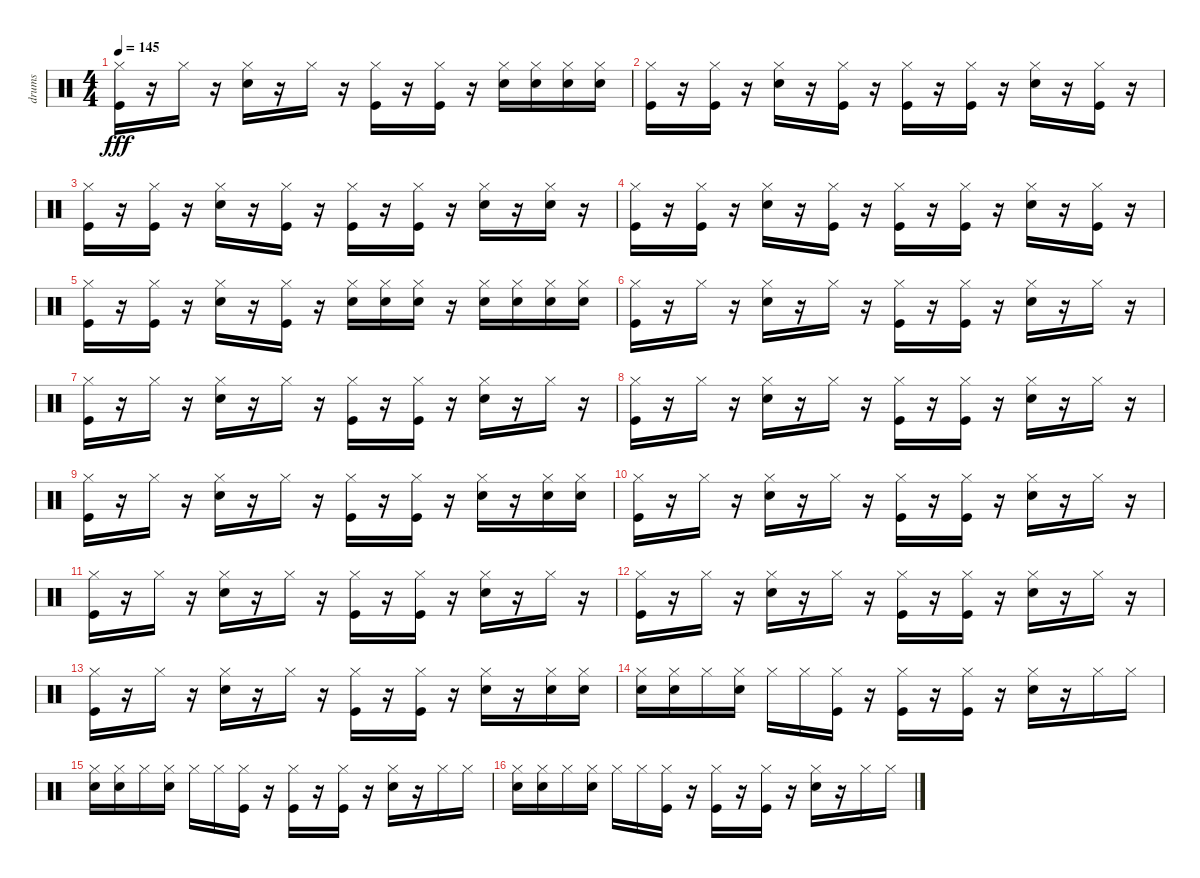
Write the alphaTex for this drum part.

\track ("drums" "drums") {instrument percussion}
\staff {score}
\articulation defaults
\ts (4 4)
\tempo 145
\clef neutral
\ks c
("Kick (hit)" "Hi-Hat (closed)").16{dy fff} r.16 "Hi-Hat (closed)".16 r.16 ("Snare (hit) 2" "Hi-Hat (closed)").16 r.16 "Hi-Hat (closed)".16 r.16 ("Kick (hit)" "Hi-Hat (closed)").16 r.16 ("Kick (hit)" "Hi-Hat (closed)").16 r.16 ("Snare (hit) 2" "Hi-Hat (closed)").16 ("Snare (hit) 2" "Hi-Hat (closed)").16 ("Snare (hit) 2" "Hi-Hat (closed)").16 ("Snare (hit) 2" "Hi-Hat (closed)").16 |
("Kick (hit)" "Hi-Hat (closed)").16 r.16 ("Kick (hit)" "Hi-Hat (closed)").16 r.16 ("Snare (hit) 2" "Hi-Hat (closed)").16 r.16 ("Kick (hit)" "Hi-Hat (closed)").16 r.16 ("Kick (hit)" "Hi-Hat (closed)").16 r.16 ("Kick (hit)" "Hi-Hat (closed)").16 r.16 ("Snare (hit) 2" "Hi-Hat (closed)").16 r.16 ("Kick (hit)" "Hi-Hat (closed)").16 r.16 |
("Kick (hit)" "Hi-Hat (closed)").16 r.16 ("Kick (hit)" "Hi-Hat (closed)").16 r.16 ("Snare (hit) 2" "Hi-Hat (closed)").16 r.16 ("Kick (hit)" "Hi-Hat (closed)").16 r.16 ("Kick (hit)" "Hi-Hat (closed)").16 r.16 ("Kick (hit)" "Hi-Hat (closed)").16 r.16 ("Snare (hit) 2" "Hi-Hat (closed)").16 r.16 ("Snare (hit) 2" "Hi-Hat (closed)").16 r.16 |
("Kick (hit)" "Hi-Hat (closed)").16 r.16 ("Kick (hit)" "Hi-Hat (closed)").16 r.16 ("Snare (hit) 2" "Hi-Hat (closed)").16 r.16 ("Kick (hit)" "Hi-Hat (closed)").16 r.16 ("Kick (hit)" "Hi-Hat (closed)").16 r.16 ("Kick (hit)" "Hi-Hat (closed)").16 r.16 ("Snare (hit) 2" "Hi-Hat (closed)").16 r.16 ("Kick (hit)" "Hi-Hat (closed)").16 r.16 |
("Kick (hit)" "Hi-Hat (closed)").16 r.16 ("Kick (hit)" "Hi-Hat (closed)").16 r.16 ("Snare (hit) 2" "Hi-Hat (closed)").16 r.16 ("Kick (hit)" "Hi-Hat (closed)").16 r.16 ("Snare (hit) 2" "Hi-Hat (closed)").16 ("Snare (hit) 2" "Hi-Hat (closed)").16 ("Snare (hit) 2" "Hi-Hat (closed)").16 r.16 ("Snare (hit) 2" "Hi-Hat (closed)").16 ("Snare (hit) 2" "Hi-Hat (closed)").16 ("Snare (hit) 2" "Hi-Hat (closed)").16 ("Snare (hit) 2" "Hi-Hat (closed)").16 |
("Kick (hit)" "Hi-Hat (closed)").16 r.16 "Hi-Hat (closed)".16 r.16 ("Snare (hit) 2" "Hi-Hat (closed)").16 r.16 "Hi-Hat (closed)".16 r.16 ("Kick (hit)" "Hi-Hat (closed)").16 r.16 ("Kick (hit)" "Hi-Hat (closed)").16 r.16 ("Snare (hit) 2" "Hi-Hat (closed)").16 r.16 "Hi-Hat (closed)".16 r.16 |
("Kick (hit)" "Hi-Hat (closed)").16 r.16 "Hi-Hat (closed)".16 r.16 ("Snare (hit) 2" "Hi-Hat (closed)").16 r.16 "Hi-Hat (closed)".16 r.16 ("Kick (hit)" "Hi-Hat (closed)").16 r.16 ("Kick (hit)" "Hi-Hat (closed)").16 r.16 ("Snare (hit) 2" "Hi-Hat (closed)").16 r.16 "Hi-Hat (closed)".16 r.16 |
("Kick (hit)" "Hi-Hat (closed)").16 r.16 "Hi-Hat (closed)".16 r.16 ("Snare (hit) 2" "Hi-Hat (closed)").16 r.16 "Hi-Hat (closed)".16 r.16 ("Kick (hit)" "Hi-Hat (closed)").16 r.16 ("Kick (hit)" "Hi-Hat (closed)").16 r.16 ("Snare (hit) 2" "Hi-Hat (closed)").16 r.16 "Hi-Hat (closed)".16 r.16 |
("Kick (hit)" "Hi-Hat (closed)").16 r.16 "Hi-Hat (closed)".16 r.16 ("Snare (hit) 2" "Hi-Hat (closed)").16 r.16 "Hi-Hat (closed)".16 r.16 ("Kick (hit)" "Hi-Hat (closed)").16 r.16 ("Kick (hit)" "Hi-Hat (closed)").16 r.16 ("Snare (hit) 2" "Hi-Hat (closed)").16 r.16 ("Snare (hit) 2" "Hi-Hat (closed)").16 ("Snare (hit) 2" "Hi-Hat (closed)").16 |
("Kick (hit)" "Hi-Hat (closed)").16 r.16 "Hi-Hat (closed)".16 r.16 ("Snare (hit) 2" "Hi-Hat (closed)").16 r.16 "Hi-Hat (closed)".16 r.16 ("Kick (hit)" "Hi-Hat (closed)").16 r.16 ("Kick (hit)" "Hi-Hat (closed)").16 r.16 ("Snare (hit) 2" "Hi-Hat (closed)").16 r.16 "Hi-Hat (closed)".16 r.16 |
("Kick (hit)" "Hi-Hat (closed)").16 r.16 "Hi-Hat (closed)".16 r.16 ("Snare (hit) 2" "Hi-Hat (closed)").16 r.16 "Hi-Hat (closed)".16 r.16 ("Kick (hit)" "Hi-Hat (closed)").16 r.16 ("Kick (hit)" "Hi-Hat (closed)").16 r.16 ("Snare (hit) 2" "Hi-Hat (closed)").16 r.16 "Hi-Hat (closed)".16 r.16 |
("Kick (hit)" "Hi-Hat (closed)").16 r.16 "Hi-Hat (closed)".16 r.16 ("Snare (hit) 2" "Hi-Hat (closed)").16 r.16 "Hi-Hat (closed)".16 r.16 ("Kick (hit)" "Hi-Hat (closed)").16 r.16 ("Kick (hit)" "Hi-Hat (closed)").16 r.16 ("Snare (hit) 2" "Hi-Hat (closed)").16 r.16 "Hi-Hat (closed)".16 r.16 |
("Kick (hit)" "Hi-Hat (closed)").16 r.16 "Hi-Hat (closed)".16 r.16 ("Snare (hit) 2" "Hi-Hat (closed)").16 r.16 "Hi-Hat (closed)".16 r.16 ("Kick (hit)" "Hi-Hat (closed)").16 r.16 ("Kick (hit)" "Hi-Hat (closed)").16 r.16 ("Snare (hit) 2" "Hi-Hat (closed)").16 r.16 ("Snare (hit) 2" "Hi-Hat (closed)").16 ("Snare (hit) 2" "Hi-Hat (closed)").16 |
("Snare (hit) 2" "Hi-Hat (closed)").16 ("Snare (hit) 2" "Hi-Hat (closed)").16 "Hi-Hat (closed)".16 ("Snare (hit) 2" "Hi-Hat (closed)").16 "Hi-Hat (closed)".16 "Hi-Hat (closed)".16 ("Kick (hit)" "Hi-Hat (closed)").16 r.16 ("Kick (hit)" "Hi-Hat (closed)").16 r.16 ("Kick (hit)" "Hi-Hat (closed)").16 r.16 ("Snare (hit) 2" "Hi-Hat (closed)").16 r.16 "Hi-Hat (closed)".16 "Hi-Hat (closed)".16 |
("Snare (hit) 2" "Hi-Hat (closed)").16 ("Snare (hit) 2" "Hi-Hat (closed)").16 "Hi-Hat (closed)".16 ("Snare (hit) 2" "Hi-Hat (closed)").16 "Hi-Hat (closed)".16 "Hi-Hat (closed)".16 ("Kick (hit)" "Hi-Hat (closed)").16 r.16 ("Kick (hit)" "Hi-Hat (closed)").16 r.16 ("Kick (hit)" "Hi-Hat (closed)").16 r.16 ("Snare (hit) 2" "Hi-Hat (closed)").16 r.16 "Hi-Hat (closed)".16 "Hi-Hat (closed)".16 |
("Snare (hit) 2" "Hi-Hat (closed)").16 ("Snare (hit) 2" "Hi-Hat (closed)").16 "Hi-Hat (closed)".16 ("Snare (hit) 2" "Hi-Hat (closed)").16 "Hi-Hat (closed)".16 "Hi-Hat (closed)".16 ("Kick (hit)" "Hi-Hat (closed)").16 r.16 ("Kick (hit)" "Hi-Hat (closed)").16 r.16 ("Kick (hit)" "Hi-Hat (closed)").16 r.16 ("Snare (hit) 2" "Hi-Hat (closed)").16 r.16 "Hi-Hat (closed)".16 "Hi-Hat (closed)".16
